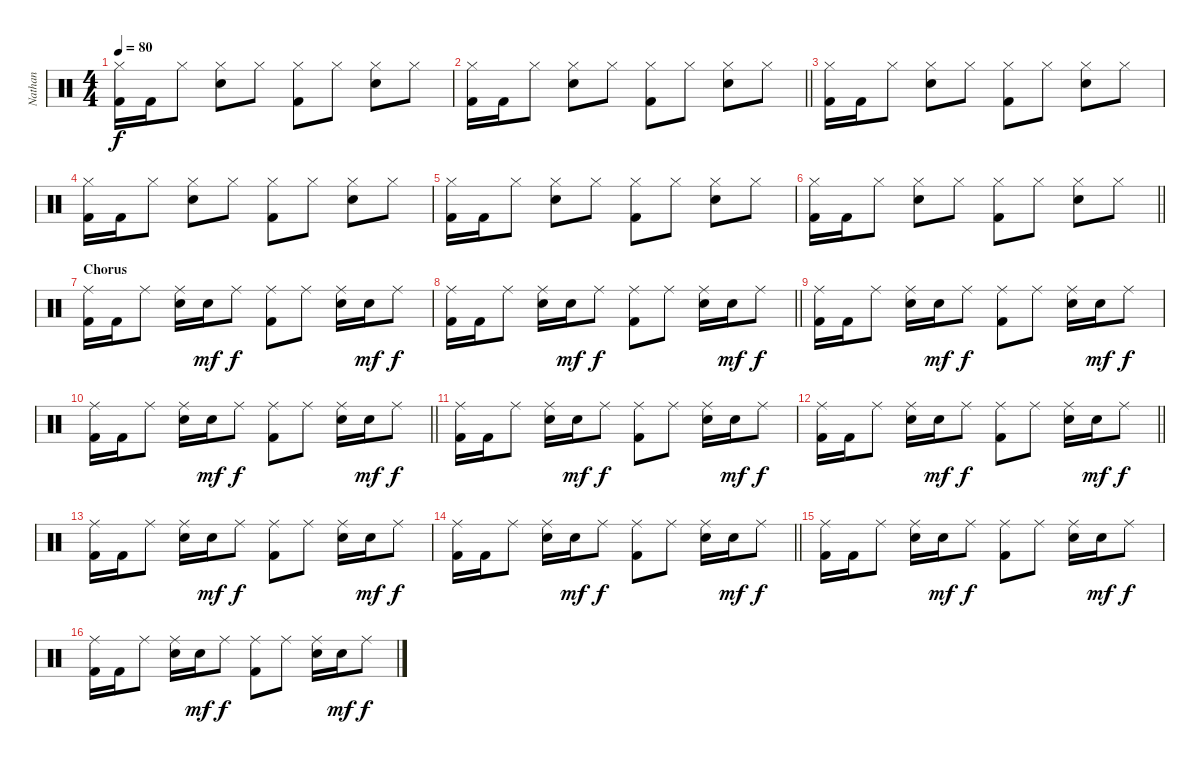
\track ("Nathan" "Nathan") {instrument percussion}
\staff {score}
\articulation defaults
\ts (4 4)
\tempo 80
\clef neutral
\ks c
("Hi-Hat (closed)" "Kick (hit) 2").16{dy f} "Kick (hit) 2".16 "Hi-Hat (closed)".8 ("Hi-Hat (closed)" "Electric Snare (hit)").8 "Hi-Hat (closed)".8 ("Hi-Hat (closed)" "Kick (hit) 2").8 "Hi-Hat (closed)".8 ("Hi-Hat (closed)" "Electric Snare (hit)").8 "Hi-Hat (closed)".8 |
\barLineRight lightlight
("Hi-Hat (closed)" "Kick (hit) 2").16 "Kick (hit) 2".16 "Hi-Hat (closed)".8 ("Hi-Hat (closed)" "Electric Snare (hit)").8 "Hi-Hat (closed)".8 ("Hi-Hat (closed)" "Kick (hit) 2").8 "Hi-Hat (closed)".8 ("Hi-Hat (closed)" "Electric Snare (hit)").8 "Hi-Hat (closed)".8 |
("Hi-Hat (closed)" "Kick (hit) 2").16 "Kick (hit) 2".16 "Hi-Hat (closed)".8 ("Hi-Hat (closed)" "Electric Snare (hit)").8 "Hi-Hat (closed)".8 ("Hi-Hat (closed)" "Kick (hit) 2").8 "Hi-Hat (closed)".8 ("Hi-Hat (closed)" "Electric Snare (hit)").8 "Hi-Hat (closed)".8 |
("Hi-Hat (closed)" "Kick (hit) 2").16 "Kick (hit) 2".16 "Hi-Hat (closed)".8 ("Hi-Hat (closed)" "Electric Snare (hit)").8 "Hi-Hat (closed)".8 ("Hi-Hat (closed)" "Kick (hit) 2").8 "Hi-Hat (closed)".8 ("Hi-Hat (closed)" "Electric Snare (hit)").8 "Hi-Hat (closed)".8 |
("Hi-Hat (closed)" "Kick (hit) 2").16 "Kick (hit) 2".16 "Hi-Hat (closed)".8 ("Hi-Hat (closed)" "Electric Snare (hit)").8 "Hi-Hat (closed)".8 ("Hi-Hat (closed)" "Kick (hit) 2").8 "Hi-Hat (closed)".8 ("Hi-Hat (closed)" "Electric Snare (hit)").8 "Hi-Hat (closed)".8 |
\barLineRight lightlight
("Hi-Hat (closed)" "Kick (hit) 2").16 "Kick (hit) 2".16 "Hi-Hat (closed)".8 ("Hi-Hat (closed)" "Electric Snare (hit)").8 "Hi-Hat (closed)".8 ("Hi-Hat (closed)" "Kick (hit) 2").8 "Hi-Hat (closed)".8 ("Hi-Hat (closed)" "Electric Snare (hit)").8 "Hi-Hat (closed)".8 |
\section ("" "Chorus")
("Ride (middle)" "Kick (hit) 2").16 "Kick (hit) 2".16 "Ride (middle)".8 ("Ride (middle)" "Electric Snare (hit)").16 "Electric Snare (hit)".16{dy mf} "Ride (middle)".8{dy f} ("Ride (middle)" "Kick (hit) 2").8 "Ride (middle)".8 ("Ride (middle)" "Electric Snare (hit)").16 "Electric Snare (hit)".16{dy mf} "Ride (middle)".8{dy f} |
\barLineRight lightlight
("Ride (middle)" "Kick (hit) 2").16 "Kick (hit) 2".16 "Ride (middle)".8 ("Ride (middle)" "Electric Snare (hit)").16 "Electric Snare (hit)".16{dy mf} "Ride (middle)".8{dy f} ("Ride (middle)" "Kick (hit) 2").8 "Ride (middle)".8 ("Ride (middle)" "Electric Snare (hit)").16 "Electric Snare (hit)".16{dy mf} "Ride (middle)".8{dy f} |
("Ride (middle)" "Kick (hit) 2").16 "Kick (hit) 2".16 "Ride (middle)".8 ("Ride (middle)" "Electric Snare (hit)").16 "Electric Snare (hit)".16{dy mf} "Ride (middle)".8{dy f} ("Ride (middle)" "Kick (hit) 2").8 "Ride (middle)".8 ("Ride (middle)" "Electric Snare (hit)").16 "Electric Snare (hit)".16{dy mf} "Ride (middle)".8{dy f} |
\barLineRight lightlight
("Ride (middle)" "Kick (hit) 2").16 "Kick (hit) 2".16 "Ride (middle)".8 ("Ride (middle)" "Electric Snare (hit)").16 "Electric Snare (hit)".16{dy mf} "Ride (middle)".8{dy f} ("Ride (middle)" "Kick (hit) 2").8 "Ride (middle)".8 ("Ride (middle)" "Electric Snare (hit)").16 "Electric Snare (hit)".16{dy mf} "Ride (middle)".8{dy f} |
("Ride (middle)" "Kick (hit) 2").16 "Kick (hit) 2".16 "Ride (middle)".8 ("Ride (middle)" "Electric Snare (hit)").16 "Electric Snare (hit)".16{dy mf} "Ride (middle)".8{dy f} ("Ride (middle)" "Kick (hit) 2").8 "Ride (middle)".8 ("Ride (middle)" "Electric Snare (hit)").16 "Electric Snare (hit)".16{dy mf} "Ride (middle)".8{dy f} |
\barLineRight lightlight
("Ride (middle)" "Kick (hit) 2").16 "Kick (hit) 2".16 "Ride (middle)".8 ("Ride (middle)" "Electric Snare (hit)").16 "Electric Snare (hit)".16{dy mf} "Ride (middle)".8{dy f} ("Ride (middle)" "Kick (hit) 2").8 "Ride (middle)".8 ("Ride (middle)" "Electric Snare (hit)").16 "Electric Snare (hit)".16{dy mf} "Ride (middle)".8{dy f} |
("Ride (middle)" "Kick (hit) 2").16 "Kick (hit) 2".16 "Ride (middle)".8 ("Ride (middle)" "Electric Snare (hit)").16 "Electric Snare (hit)".16{dy mf} "Ride (middle)".8{dy f} ("Ride (middle)" "Kick (hit) 2").8 "Ride (middle)".8 ("Ride (middle)" "Electric Snare (hit)").16 "Electric Snare (hit)".16{dy mf} "Ride (middle)".8{dy f} |
\barLineRight lightlight
("Ride (middle)" "Kick (hit) 2").16 "Kick (hit) 2".16 "Ride (middle)".8 ("Ride (middle)" "Electric Snare (hit)").16 "Electric Snare (hit)".16{dy mf} "Ride (middle)".8{dy f} ("Ride (middle)" "Kick (hit) 2").8 "Ride (middle)".8 ("Ride (middle)" "Electric Snare (hit)").16 "Electric Snare (hit)".16{dy mf} "Ride (middle)".8{dy f} |
\section ("" "")
("Ride (middle)" "Kick (hit) 2").16 "Kick (hit) 2".16 "Ride (middle)".8 ("Ride (middle)" "Electric Snare (hit)").16 "Electric Snare (hit)".16{dy mf} "Ride (middle)".8{dy f} ("Ride (middle)" "Kick (hit) 2").8 "Ride (middle)".8 ("Ride (middle)" "Electric Snare (hit)").16 "Electric Snare (hit)".16{dy mf} "Ride (middle)".8{dy f} |
("Ride (middle)" "Kick (hit) 2").16 "Kick (hit) 2".16 "Ride (middle)".8 ("Ride (middle)" "Electric Snare (hit)").16 "Electric Snare (hit)".16{dy mf} "Ride (middle)".8{dy f} ("Ride (middle)" "Kick (hit) 2").8 "Ride (middle)".8 ("Ride (middle)" "Electric Snare (hit)").16 "Electric Snare (hit)".16{dy mf} "Ride (middle)".8{dy f}
